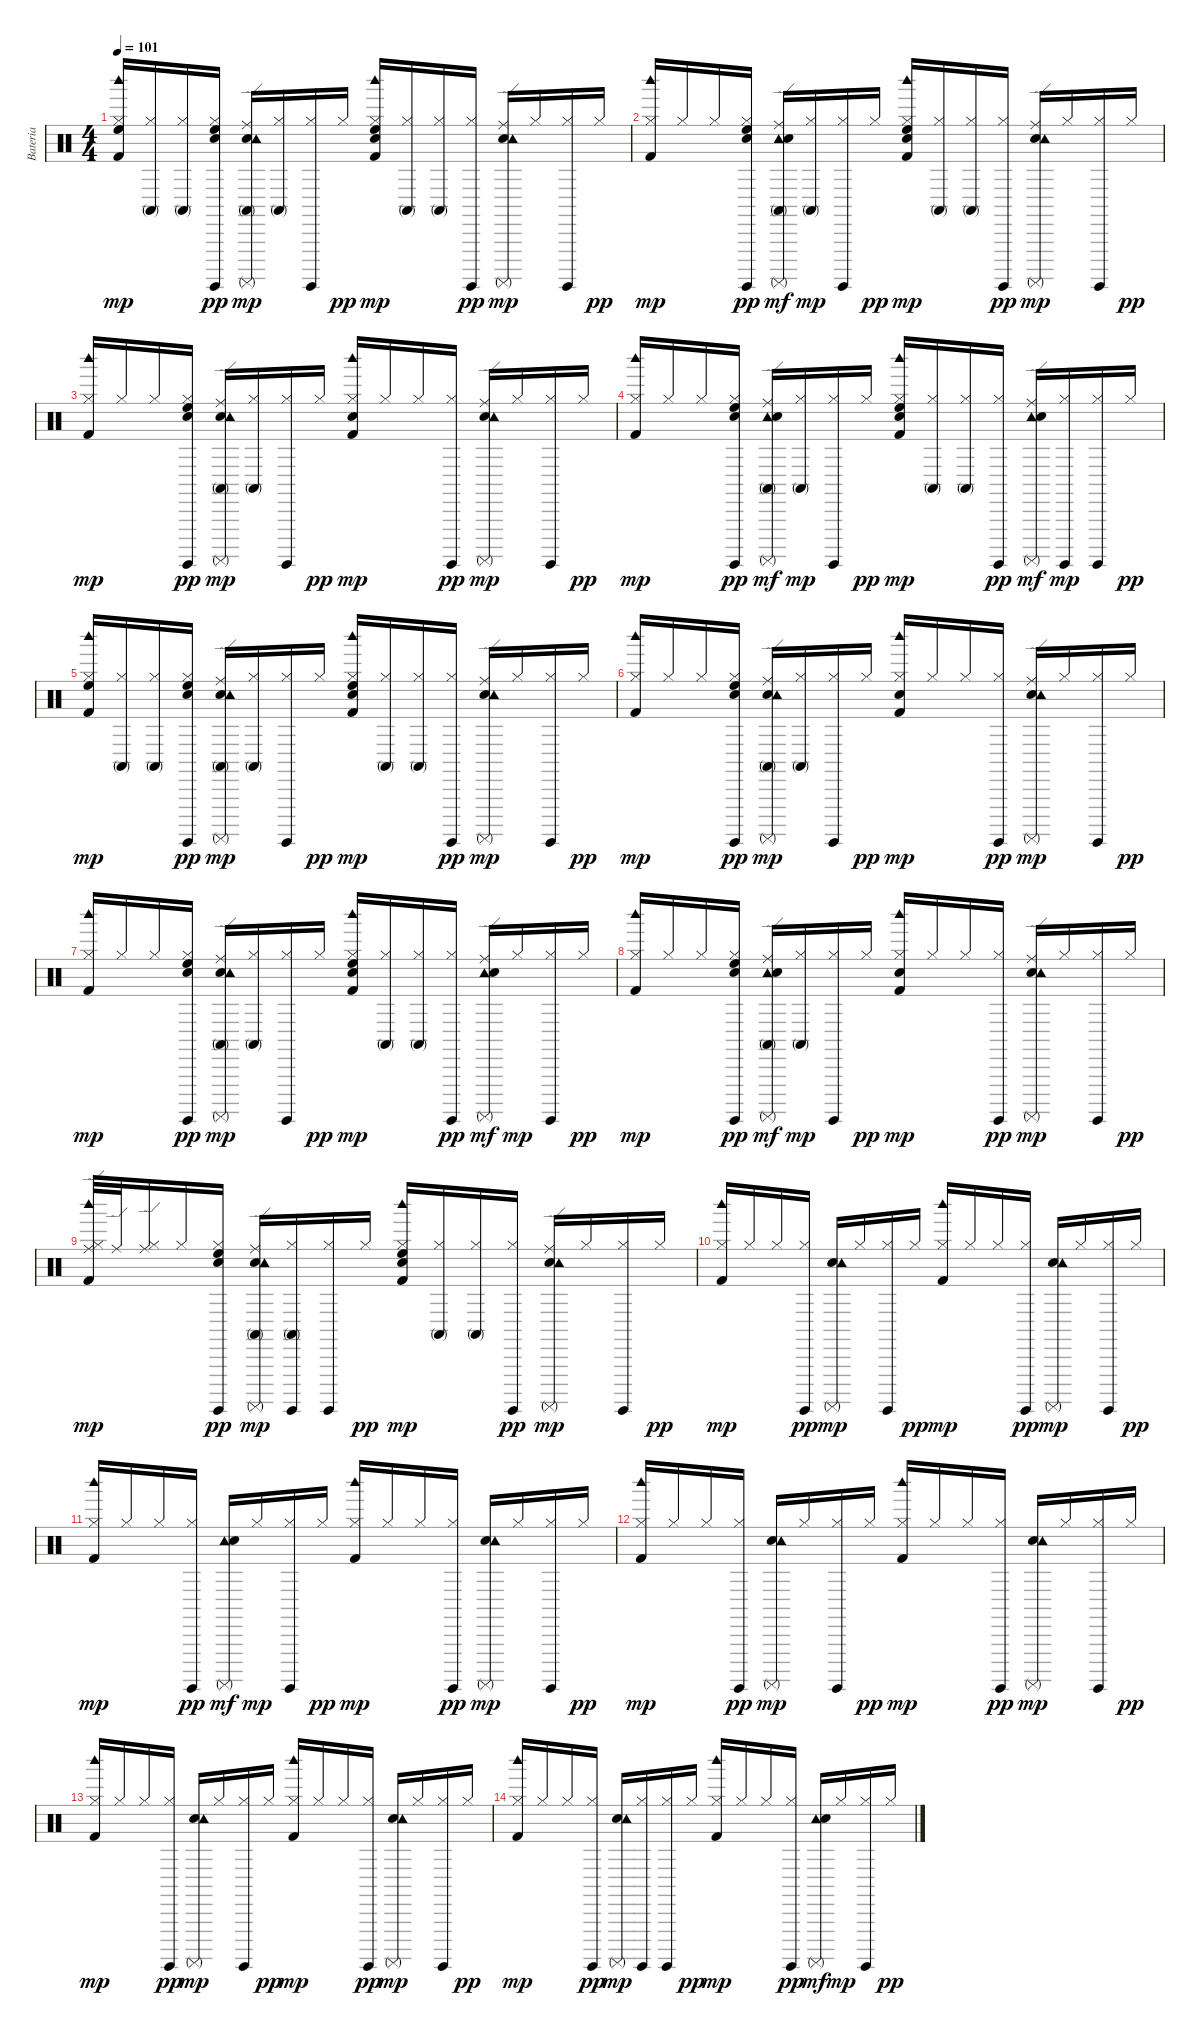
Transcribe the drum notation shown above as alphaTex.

\track ("Bateria" "Bateria") {instrument percussion}
\staff {score}
\articulation defaults
\ts (4 4)
\tempo 101
\clef neutral
\ks c
("High Floor Tom (hit)" "Kick (hit) 2" "Hi-Hat (closed)" "Woodblock high (hit)").16{dy mp} ("Conga high (mute)" "Hi-Hat (closed)").16 ("Conga high (mute)" "Hi-Hat (closed)").16 ("High Floor Tom (hit)" "Snare (hit)" "Surdo (hit)" "Hi-Hat (closed)").16{dy pp} ("Conga high (mute)" "Ride (edge)" "Electric Snare (hit)" "Surdo (mute)" "Tambourine (hit)").16{dy mp} ("Conga high (mute)" "Hi-Hat (closed)").16 ("Surdo (hit)" "Hi-Hat (closed)").16 "Hi-Hat (closed)".16{dy pp} ("High Floor Tom (hit)" "Snare (hit)" "Kick (hit) 2" "Hi-Hat (closed)" "Woodblock high (hit)").16{dy mp} ("Conga high (mute)" "Hi-Hat (closed)").16 ("Conga high (mute)" "Hi-Hat (closed)").16 ("Surdo (hit)" "Hi-Hat (closed)").16{dy pp} ("Ride (edge)" "Electric Snare (hit)" "Surdo (mute)" "Tambourine (hit)").16{dy mp} "Hi-Hat (closed)".16 ("Surdo (hit)" "Hi-Hat (closed)").16 "Hi-Hat (closed)".16{dy pp} |
("Kick (hit) 2" "Hi-Hat (closed)" "Woodblock high (hit)").16{dy mp} "Hi-Hat (closed)".16 "Hi-Hat (closed)".16 ("High Floor Tom (hit)" "Snare (hit)" "Surdo (hit)" "Hi-Hat (closed)").16{dy pp} ("Conga high (mute)" "Ride (edge)" "Tambourine (hit)" "Electric Snare (hit)" "Surdo (mute)").16{dy mf} ("Conga high (mute)" "Hi-Hat (closed)").16{dy mp} ("Surdo (hit)" "Hi-Hat (closed)").16 "Hi-Hat (closed)".16{dy pp} ("High Floor Tom (hit)" "Snare (hit)" "Hi-Hat (closed)" "Woodblock high (hit)" "Kick (hit) 2").16{dy mp} ("Conga high (mute)" "Hi-Hat (closed)").16 ("Conga high (mute)" "Hi-Hat (closed)").16 ("Surdo (hit)" "Hi-Hat (closed)").16{dy pp} ("Ride (edge)" "Electric Snare (hit)" "Surdo (mute)" "Tambourine (hit)").16{dy mp} "Hi-Hat (closed)".16 ("Surdo (hit)" "Hi-Hat (closed)").16 "Hi-Hat (closed)".16{dy pp} |
("Hi-Hat (closed)" "Woodblock high (hit)" "Kick (hit) 2").16{dy mp} "Hi-Hat (closed)".16 "Hi-Hat (closed)".16 ("High Floor Tom (hit)" "Snare (hit)" "Surdo (hit)" "Hi-Hat (closed)").16{dy pp} ("Conga high (mute)" "Ride (edge)" "Electric Snare (hit)" "Surdo (mute)" "Tambourine (hit)").16{dy mp} ("Conga high (mute)" "Hi-Hat (closed)").16 ("Surdo (hit)" "Hi-Hat (closed)").16 "Hi-Hat (closed)".16{dy pp} ("Snare (hit)" "Kick (hit) 2" "Hi-Hat (closed)" "Woodblock high (hit)").16{dy mp} "Hi-Hat (closed)".16 "Hi-Hat (closed)".16 ("Surdo (hit)" "Hi-Hat (closed)").16{dy pp} ("Ride (edge)" "Electric Snare (hit)" "Surdo (mute)" "Tambourine (hit)").16{dy mp} "Hi-Hat (closed)".16 ("Surdo (hit)" "Hi-Hat (closed)").16 "Hi-Hat (closed)".16{dy pp} |
("Kick (hit) 2" "Hi-Hat (closed)" "Woodblock high (hit)").16{dy mp} "Hi-Hat (closed)".16 "Hi-Hat (closed)".16 ("High Floor Tom (hit)" "Snare (hit)" "Surdo (hit)" "Hi-Hat (closed)").16{dy pp} ("Conga high (mute)" "Ride (edge)" "Surdo (mute)" "Tambourine (hit)" "Electric Snare (hit)").16{dy mf} ("Conga high (mute)" "Hi-Hat (closed)").16{dy mp} ("Surdo (hit)" "Hi-Hat (closed)").16 "Hi-Hat (closed)".16{dy pp} ("High Floor Tom (hit)" "Snare (hit)" "Woodblock high (hit)" "Kick (hit) 2" "Hi-Hat (closed)").16{dy mp} ("Conga high (mute)" "Hi-Hat (closed)").16 ("Conga high (mute)" "Hi-Hat (closed)").16 ("Surdo (hit)" "Hi-Hat (closed)").16{dy pp} ("Ride (edge)" "Surdo (mute)" "Tambourine (hit)" "Electric Snare (hit)").16{dy mf} ("Surdo (hit)" "Hi-Hat (closed)").16{dy mp} ("Surdo (hit)" "Hi-Hat (closed)").16 "Hi-Hat (closed)".16{dy pp} |
("High Floor Tom (hit)" "Woodblock high (hit)" "Kick (hit) 2" "Hi-Hat (closed)").16{dy mp} ("Conga high (mute)" "Hi-Hat (closed)").16 ("Conga high (mute)" "Hi-Hat (closed)").16 ("High Floor Tom (hit)" "Snare (hit)" "Surdo (hit)" "Hi-Hat (closed)").16{dy pp} ("Conga high (mute)" "Ride (edge)" "Electric Snare (hit)" "Surdo (mute)" "Tambourine (hit)").16{dy mp} ("Conga high (mute)" "Hi-Hat (closed)").16 ("Surdo (hit)" "Hi-Hat (closed)").16 "Hi-Hat (closed)".16{dy pp} ("High Floor Tom (hit)" "Snare (hit)" "Kick (hit) 2" "Hi-Hat (closed)" "Woodblock high (hit)").16{dy mp} ("Conga high (mute)" "Hi-Hat (closed)").16 ("Conga high (mute)" "Hi-Hat (closed)").16 ("Surdo (hit)" "Hi-Hat (closed)").16{dy pp} ("Ride (edge)" "Electric Snare (hit)" "Surdo (mute)" "Tambourine (hit)").16{dy mp} "Hi-Hat (closed)".16 ("Surdo (hit)" "Hi-Hat (closed)").16 "Hi-Hat (closed)".16{dy pp} |
("Hi-Hat (closed)" "Woodblock high (hit)" "Kick (hit) 2").16{dy mp} "Hi-Hat (closed)".16 "Hi-Hat (closed)".16 ("High Floor Tom (hit)" "Snare (hit)" "Surdo (hit)" "Hi-Hat (closed)").16{dy pp} ("Conga high (mute)" "Ride (edge)" "Electric Snare (hit)" "Surdo (mute)" "Tambourine (hit)").16{dy mp} ("Conga high (mute)" "Hi-Hat (closed)").16 ("Surdo (hit)" "Hi-Hat (closed)").16 "Hi-Hat (closed)".16{dy pp} ("Snare (hit)" "Hi-Hat (closed)" "Woodblock high (hit)" "Kick (hit) 2").16{dy mp} "Hi-Hat (closed)".16 "Hi-Hat (closed)".16 ("Surdo (hit)" "Hi-Hat (closed)").16{dy pp} ("Ride (edge)" "Electric Snare (hit)" "Surdo (mute)" "Tambourine (hit)").16{dy mp} "Hi-Hat (closed)".16 ("Surdo (hit)" "Hi-Hat (closed)").16 "Hi-Hat (closed)".16{dy pp} |
("Hi-Hat (closed)" "Woodblock high (hit)" "Kick (hit) 2").16{dy mp} "Hi-Hat (closed)".16 "Hi-Hat (closed)".16 ("High Floor Tom (hit)" "Snare (hit)" "Surdo (hit)" "Hi-Hat (closed)").16{dy pp} ("Conga high (mute)" "Ride (edge)" "Electric Snare (hit)" "Surdo (mute)" "Tambourine (hit)").16{dy mp} ("Conga high (mute)" "Hi-Hat (closed)").16 ("Surdo (hit)" "Hi-Hat (closed)").16 "Hi-Hat (closed)".16{dy pp} ("High Floor Tom (hit)" "Snare (hit)" "Kick (hit) 2" "Hi-Hat (closed)" "Woodblock high (hit)").16{dy mp} ("Conga high (mute)" "Hi-Hat (closed)").16 ("Conga high (mute)" "Hi-Hat (closed)").16 ("Surdo (hit)" "Hi-Hat (closed)").16{dy pp} ("Ride (edge)" "Tambourine (hit)" "Electric Snare (hit)" "Surdo (mute)").16{dy mf} "Hi-Hat (closed)".16{dy mp} ("Surdo (hit)" "Hi-Hat (closed)").16 "Hi-Hat (closed)".16{dy pp} |
("Kick (hit) 2" "Hi-Hat (closed)" "Woodblock high (hit)").16{dy mp} "Hi-Hat (closed)".16 "Hi-Hat (closed)".16 ("High Floor Tom (hit)" "Snare (hit)" "Surdo (hit)" "Hi-Hat (closed)").16{dy pp} ("Conga high (mute)" "Ride (edge)" "Tambourine (hit)" "Electric Snare (hit)" "Surdo (mute)").16{dy mf} ("Conga high (mute)" "Hi-Hat (closed)").16{dy mp} ("Surdo (hit)" "Hi-Hat (closed)").16 "Hi-Hat (closed)".16{dy pp} ("Snare (hit)" "Woodblock high (hit)" "Kick (hit) 2" "Hi-Hat (closed)").16{dy mp} "Hi-Hat (closed)".16 "Hi-Hat (closed)".16 ("Surdo (hit)" "Hi-Hat (closed)").16{dy pp} ("Ride (edge)" "Electric Snare (hit)" "Surdo (mute)" "Tambourine (hit)").16{dy mp} "Hi-Hat (closed)".16 ("Surdo (hit)" "Hi-Hat (closed)").16 "Hi-Hat (closed)".16{dy pp} |
("Ride (edge)" "Kick (hit) 2" "Hi-Hat (closed)" "Woodblock high (hit)").32{dy mp} "Ride (edge)".32 ("Ride (edge)" "Hi-Hat (closed)").16 "Hi-Hat (closed)".16 ("High Floor Tom (hit)" "Snare (hit)" "Surdo (hit)" "Hi-Hat (closed)").16{dy pp} ("Conga high (mute)" "Ride (edge)" "Electric Snare (hit)" "Surdo (mute)" "Tambourine (hit)").16{dy mp} ("Conga high (mute)" "Surdo (hit)" "Hi-Hat (closed)").16 ("Surdo (hit)" "Hi-Hat (closed)").16 "Hi-Hat (closed)".16{dy pp} ("High Floor Tom (hit)" "Snare (hit)" "Kick (hit) 2" "Hi-Hat (closed)" "Woodblock high (hit)").16{dy mp} ("Conga high (mute)" "Hi-Hat (closed)").16 ("Conga high (mute)" "Hi-Hat (closed)").16 ("Surdo (hit)" "Hi-Hat (closed)").16{dy pp} ("Ride (edge)" "Electric Snare (hit)" "Surdo (mute)" "Tambourine (hit)").16{dy mp} "Hi-Hat (closed)".16 ("Surdo (hit)" "Hi-Hat (closed)").16 "Hi-Hat (closed)".16{dy pp} |
("Kick (hit) 2" "Hi-Hat (closed)" "Woodblock high (hit)").16{dy mp} "Hi-Hat (closed)".16 "Hi-Hat (closed)".16 ("Surdo (hit)" "Hi-Hat (closed)").16{dy pp} ("Electric Snare (hit)" "Surdo (mute)" "Tambourine (hit)").16{dy mp} "Hi-Hat (closed)".16 ("Surdo (hit)" "Hi-Hat (closed)").16 "Hi-Hat (closed)".16{dy pp} ("Kick (hit) 2" "Hi-Hat (closed)" "Woodblock high (hit)").16{dy mp} "Hi-Hat (closed)".16 "Hi-Hat (closed)".16 ("Surdo (hit)" "Hi-Hat (closed)").16{dy pp} ("Electric Snare (hit)" "Surdo (mute)" "Tambourine (hit)").16{dy mp} "Hi-Hat (closed)".16 ("Surdo (hit)" "Hi-Hat (closed)").16 "Hi-Hat (closed)".16{dy pp} |
("Kick (hit) 2" "Hi-Hat (closed)" "Woodblock high (hit)").16{dy mp} "Hi-Hat (closed)".16 "Hi-Hat (closed)".16 ("Surdo (hit)" "Hi-Hat (closed)").16{dy pp} ("Surdo (mute)" "Tambourine (hit)" "Electric Snare (hit)").16{dy mf} "Hi-Hat (closed)".16{dy mp} ("Surdo (hit)" "Hi-Hat (closed)").16 "Hi-Hat (closed)".16{dy pp} ("Kick (hit) 2" "Hi-Hat (closed)" "Woodblock high (hit)").16{dy mp} "Hi-Hat (closed)".16 "Hi-Hat (closed)".16 ("Surdo (hit)" "Hi-Hat (closed)").16{dy pp} ("Electric Snare (hit)" "Surdo (mute)" "Tambourine (hit)").16{dy mp} "Hi-Hat (closed)".16 ("Surdo (hit)" "Hi-Hat (closed)").16 "Hi-Hat (closed)".16{dy pp} |
("Kick (hit) 2" "Hi-Hat (closed)" "Woodblock high (hit)").16{dy mp} "Hi-Hat (closed)".16 "Hi-Hat (closed)".16 ("Surdo (hit)" "Hi-Hat (closed)").16{dy pp} ("Electric Snare (hit)" "Surdo (mute)" "Tambourine (hit)").16{dy mp} "Hi-Hat (closed)".16 ("Surdo (hit)" "Hi-Hat (closed)").16 "Hi-Hat (closed)".16{dy pp} ("Kick (hit) 2" "Hi-Hat (closed)" "Woodblock high (hit)").16{dy mp} "Hi-Hat (closed)".16 "Hi-Hat (closed)".16 ("Surdo (hit)" "Hi-Hat (closed)").16{dy pp} ("Electric Snare (hit)" "Surdo (mute)" "Tambourine (hit)").16{dy mp} "Hi-Hat (closed)".16 ("Surdo (hit)" "Hi-Hat (closed)").16 "Hi-Hat (closed)".16{dy pp} |
("Kick (hit) 2" "Hi-Hat (closed)" "Woodblock high (hit)").16{dy mp} "Hi-Hat (closed)".16 "Hi-Hat (closed)".16 ("Surdo (hit)" "Hi-Hat (closed)").16{dy pp} ("Electric Snare (hit)" "Surdo (mute)" "Tambourine (hit)").16{dy mp} "Hi-Hat (closed)".16 ("Surdo (hit)" "Hi-Hat (closed)").16 "Hi-Hat (closed)".16{dy pp} ("Kick (hit) 2" "Hi-Hat (closed)" "Woodblock high (hit)").16{dy mp} "Hi-Hat (closed)".16 "Hi-Hat (closed)".16 ("Surdo (hit)" "Hi-Hat (closed)").16{dy pp} ("Electric Snare (hit)" "Surdo (mute)" "Tambourine (hit)").16{dy mp} "Hi-Hat (closed)".16 ("Surdo (hit)" "Hi-Hat (closed)").16 "Hi-Hat (closed)".16{dy pp} |
("Kick (hit) 2" "Hi-Hat (closed)" "Woodblock high (hit)").16{dy mp} "Hi-Hat (closed)".16 "Hi-Hat (closed)".16 ("Surdo (hit)" "Hi-Hat (closed)").16{dy pp} ("Electric Snare (hit)" "Surdo (mute)" "Tambourine (hit)").16{dy mp} ("Surdo (hit)" "Hi-Hat (closed)").16 ("Surdo (hit)" "Hi-Hat (closed)").16 "Hi-Hat (closed)".16{dy pp} ("Kick (hit) 2" "Hi-Hat (closed)" "Woodblock high (hit)").16{dy mp} "Hi-Hat (closed)".16 "Hi-Hat (closed)".16 ("Surdo (hit)" "Hi-Hat (closed)").16{dy pp} ("Surdo (mute)" "Tambourine (hit)" "Electric Snare (hit)").16{dy mf} "Hi-Hat (closed)".16{dy mp} ("Surdo (hit)" "Hi-Hat (closed)").16 "Hi-Hat (closed)".16{dy pp}
